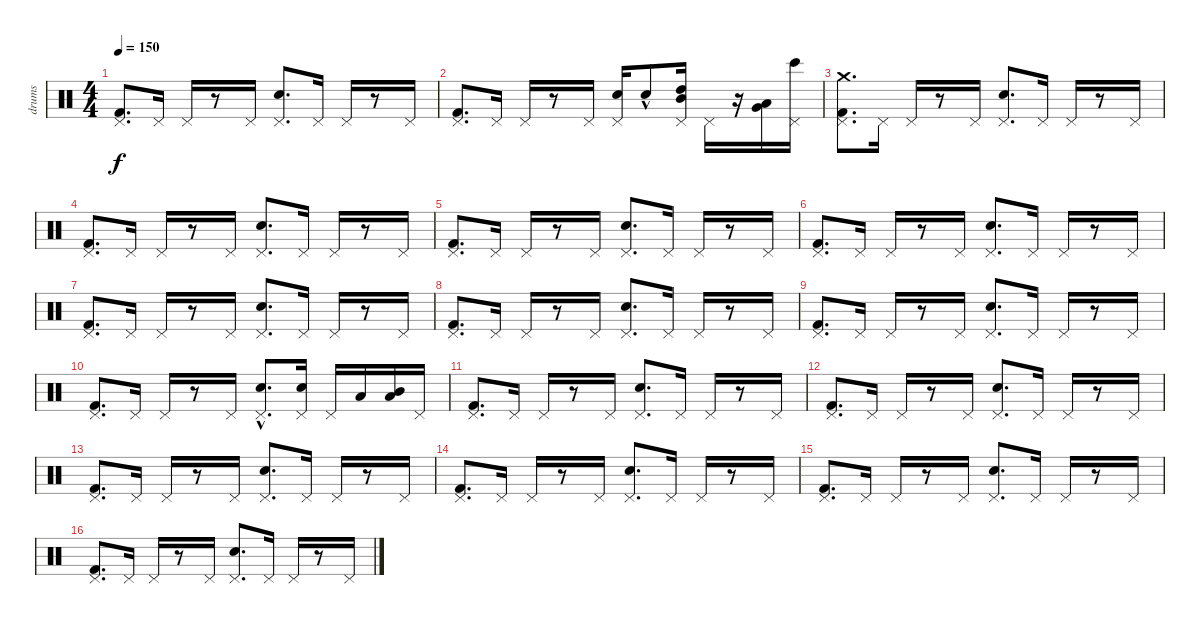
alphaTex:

\track ("drums" "drums") {instrument percussion}
\staff {score}
\articulation defaults
\ts (4 4)
\tempo 150
\clef neutral
\ks c
("Kick (hit) 2" "Pedal Hi-Hat (hit)").8{d dy f} "Pedal Hi-Hat (hit)".16 "Pedal Hi-Hat (hit)".16 r.8 "Pedal Hi-Hat (hit)".16 ("Snare (hit) 2" "Pedal Hi-Hat (hit)").8{d} "Pedal Hi-Hat (hit)".16 "Pedal Hi-Hat (hit)".16 r.8 "Pedal Hi-Hat (hit)".16 |
("Kick (hit) 2" "Pedal Hi-Hat (hit)").8{d} "Pedal Hi-Hat (hit)".16 "Pedal Hi-Hat (hit)".16 r.8 "Pedal Hi-Hat (hit)".16 ("Snare (hit) 2" "Pedal Hi-Hat (hit)").16 "Snare (hit) 2"{hac}.8 ("Pedal Hi-Hat (hit)" "High Tom (hit)" "Mid Tom (hit)").16 "Pedal Hi-Hat (hit)".16 r.16 ("Very Low Tom (hit)" "Low Tom (hit)").16 ("Pedal Hi-Hat (hit)" "Bongo High (hit)").16 |
("Kick (hit) 2" "Pedal Hi-Hat (hit)" "Crash medium (hit)").8{d} "Pedal Hi-Hat (hit)".16 "Pedal Hi-Hat (hit)".16 r.8 "Pedal Hi-Hat (hit)".16 ("Snare (hit) 2" "Pedal Hi-Hat (hit)").8{d} "Pedal Hi-Hat (hit)".16 "Pedal Hi-Hat (hit)".16 r.8 "Pedal Hi-Hat (hit)".16 |
("Kick (hit) 2" "Pedal Hi-Hat (hit)").8{d} "Pedal Hi-Hat (hit)".16 "Pedal Hi-Hat (hit)".16 r.8 "Pedal Hi-Hat (hit)".16 ("Snare (hit) 2" "Pedal Hi-Hat (hit)").8{d} "Pedal Hi-Hat (hit)".16 "Pedal Hi-Hat (hit)".16 r.8 "Pedal Hi-Hat (hit)".16 |
("Kick (hit) 2" "Pedal Hi-Hat (hit)").8{d} "Pedal Hi-Hat (hit)".16 "Pedal Hi-Hat (hit)".16 r.8 "Pedal Hi-Hat (hit)".16 ("Snare (hit) 2" "Pedal Hi-Hat (hit)").8{d} "Pedal Hi-Hat (hit)".16 "Pedal Hi-Hat (hit)".16 r.8 "Pedal Hi-Hat (hit)".16 |
("Kick (hit) 2" "Pedal Hi-Hat (hit)").8{d} "Pedal Hi-Hat (hit)".16 "Pedal Hi-Hat (hit)".16 r.8 "Pedal Hi-Hat (hit)".16 ("Snare (hit) 2" "Pedal Hi-Hat (hit)").8{d} "Pedal Hi-Hat (hit)".16 "Pedal Hi-Hat (hit)".16 r.8 "Pedal Hi-Hat (hit)".16 |
("Kick (hit) 2" "Pedal Hi-Hat (hit)").8{d} "Pedal Hi-Hat (hit)".16 "Pedal Hi-Hat (hit)".16 r.8 "Pedal Hi-Hat (hit)".16 ("Snare (hit) 2" "Pedal Hi-Hat (hit)").8{d} "Pedal Hi-Hat (hit)".16 "Pedal Hi-Hat (hit)".16 r.8 "Pedal Hi-Hat (hit)".16 |
("Kick (hit) 2" "Pedal Hi-Hat (hit)").8{d} "Pedal Hi-Hat (hit)".16 "Pedal Hi-Hat (hit)".16 r.8 "Pedal Hi-Hat (hit)".16 ("Snare (hit) 2" "Pedal Hi-Hat (hit)").8{d} "Pedal Hi-Hat (hit)".16 "Pedal Hi-Hat (hit)".16 r.8 "Pedal Hi-Hat (hit)".16 |
("Kick (hit) 2" "Pedal Hi-Hat (hit)").8{d} "Pedal Hi-Hat (hit)".16 "Pedal Hi-Hat (hit)".16 r.8 "Pedal Hi-Hat (hit)".16 ("Snare (hit) 2" "Pedal Hi-Hat (hit)").8{d} "Pedal Hi-Hat (hit)".16 "Pedal Hi-Hat (hit)".16 r.8 "Pedal Hi-Hat (hit)".16 |
("Kick (hit) 2" "Pedal Hi-Hat (hit)").8{d} "Pedal Hi-Hat (hit)".16 "Pedal Hi-Hat (hit)".16 r.8 "Pedal Hi-Hat (hit)".16 ("Snare (hit) 2"{hac} "Pedal Hi-Hat (hit)").8{d} ("Pedal Hi-Hat (hit)" "Snare (hit) 2").16 "Pedal Hi-Hat (hit)".16 "Low Tom (hit)".16 ("Low Floor Tom (hit)" "Mid Tom (hit)").16 "Pedal Hi-Hat (hit)".16 |
("Kick (hit) 2" "Pedal Hi-Hat (hit)").8{d} "Pedal Hi-Hat (hit)".16 "Pedal Hi-Hat (hit)".16 r.8 "Pedal Hi-Hat (hit)".16 ("Snare (hit) 2" "Pedal Hi-Hat (hit)").8{d} "Pedal Hi-Hat (hit)".16 "Pedal Hi-Hat (hit)".16 r.8 "Pedal Hi-Hat (hit)".16 |
("Kick (hit) 2" "Pedal Hi-Hat (hit)").8{d} "Pedal Hi-Hat (hit)".16 "Pedal Hi-Hat (hit)".16 r.8 "Pedal Hi-Hat (hit)".16 ("Snare (hit) 2" "Pedal Hi-Hat (hit)").8{d} "Pedal Hi-Hat (hit)".16 "Pedal Hi-Hat (hit)".16 r.8 "Pedal Hi-Hat (hit)".16 |
("Kick (hit) 2" "Pedal Hi-Hat (hit)").8{d} "Pedal Hi-Hat (hit)".16 "Pedal Hi-Hat (hit)".16 r.8 "Pedal Hi-Hat (hit)".16 ("Snare (hit) 2" "Pedal Hi-Hat (hit)").8{d} "Pedal Hi-Hat (hit)".16 "Pedal Hi-Hat (hit)".16 r.8 "Pedal Hi-Hat (hit)".16 |
("Kick (hit) 2" "Pedal Hi-Hat (hit)").8{d} "Pedal Hi-Hat (hit)".16 "Pedal Hi-Hat (hit)".16 r.8 "Pedal Hi-Hat (hit)".16 ("Snare (hit) 2" "Pedal Hi-Hat (hit)").8{d} "Pedal Hi-Hat (hit)".16 "Pedal Hi-Hat (hit)".16 r.8 "Pedal Hi-Hat (hit)".16 |
("Kick (hit) 2" "Pedal Hi-Hat (hit)").8{d} "Pedal Hi-Hat (hit)".16 "Pedal Hi-Hat (hit)".16 r.8 "Pedal Hi-Hat (hit)".16 ("Snare (hit) 2" "Pedal Hi-Hat (hit)").8{d} "Pedal Hi-Hat (hit)".16 "Pedal Hi-Hat (hit)".16 r.8 "Pedal Hi-Hat (hit)".16 |
("Kick (hit) 2" "Pedal Hi-Hat (hit)").8{d} "Pedal Hi-Hat (hit)".16 "Pedal Hi-Hat (hit)".16 r.8 "Pedal Hi-Hat (hit)".16 ("Snare (hit) 2" "Pedal Hi-Hat (hit)").8{d} "Pedal Hi-Hat (hit)".16 "Pedal Hi-Hat (hit)".16 r.8 "Pedal Hi-Hat (hit)".16
